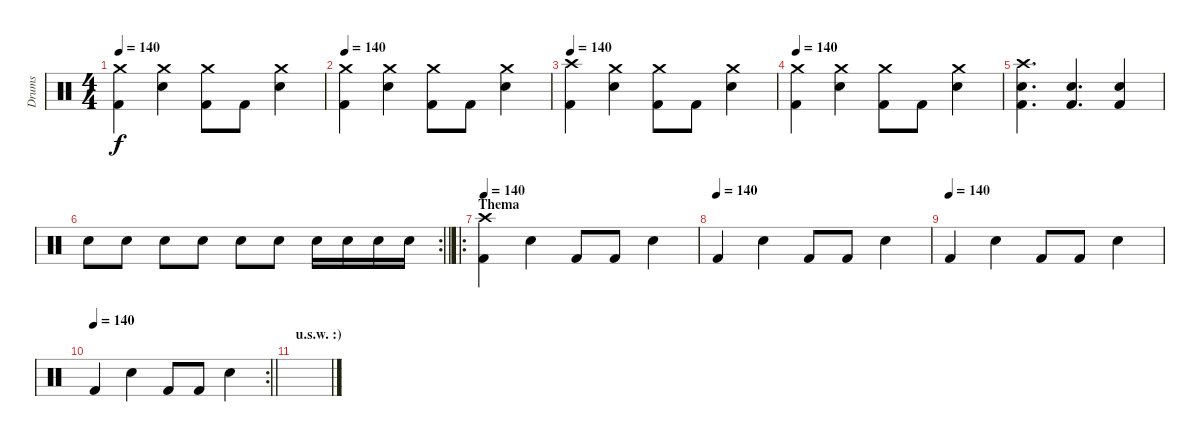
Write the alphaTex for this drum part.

\track ("Drums" "Drums") {instrument percussion}
\staff {score}
\articulation defaults
\ts (4 4)
\tempo 140
\clef neutral
\ks c
("Crash medium (hit)" "Kick (hit) 2").4{dy f} ("Crash medium (hit)" "Snare (hit) 2").4 ("Crash medium (hit)" "Kick (hit) 2").8 "Kick (hit) 2".8 ("Crash medium (hit)" "Snare (hit) 2").4 |
\tempo 140
("Crash medium (hit)" "Kick (hit) 2").4 ("Crash medium (hit)" "Snare (hit) 2").4 ("Crash medium (hit)" "Kick (hit) 2").8 "Kick (hit) 2".8 ("Crash medium (hit)" "Snare (hit) 2").4 |
\tempo 140
("Crash high (hit)" "Kick (hit) 2").4 ("Crash medium (hit)" "Snare (hit) 2").4 ("Crash medium (hit)" "Kick (hit) 2").8 "Kick (hit) 2".8 ("Crash medium (hit)" "Snare (hit) 2").4 |
\tempo 140
("Crash medium (hit)" "Kick (hit) 2").4 ("Crash medium (hit)" "Snare (hit) 2").4 ("Crash medium (hit)" "Kick (hit) 2").8 "Kick (hit) 2".8 ("Crash medium (hit)" "Snare (hit) 2").4 |
("Crash high (hit)" "Snare (hit) 2" "Kick (hit) 2").4{d} ("Snare (hit) 2" "Kick (hit) 2").4{d} ("Snare (hit) 2" "Kick (hit) 2").4 |
\rc 2
\barLineRight lightlight "Snare (hit) 2".8 "Snare (hit) 2".8 "Snare (hit) 2".8 "Snare (hit) 2".8 "Snare (hit) 2".8 "Snare (hit) 2".8 "Snare (hit) 2".16 "Snare (hit) 2".16 "Snare (hit) 2".16 "Snare (hit) 2".16
|
\ro
\section ("" "Thema")
\tempo 140
("Crash high (hit)" "Kick (hit) 2").4 "Snare (hit) 2".4 "Kick (hit) 2".8 "Kick (hit) 2".8 "Snare (hit) 2".4 |
\tempo (140)
"Kick (hit) 2".4 "Snare (hit) 2".4 "Kick (hit) 2".8 "Kick (hit) 2".8 "Snare (hit) 2".4 |
\tempo (140)
"Kick (hit) 2".4 "Snare (hit) 2".4 "Kick (hit) 2".8 "Kick (hit) 2".8 "Snare (hit) 2".4 |
\rc 2
\tempo 140
\barLineRight lightlight "Kick (hit) 2".4 "Snare (hit) 2".4 "Kick (hit) 2".8 "Kick (hit) 2".8 "Snare (hit) 2".4
|
\section ("" "u.s.w. :)")
